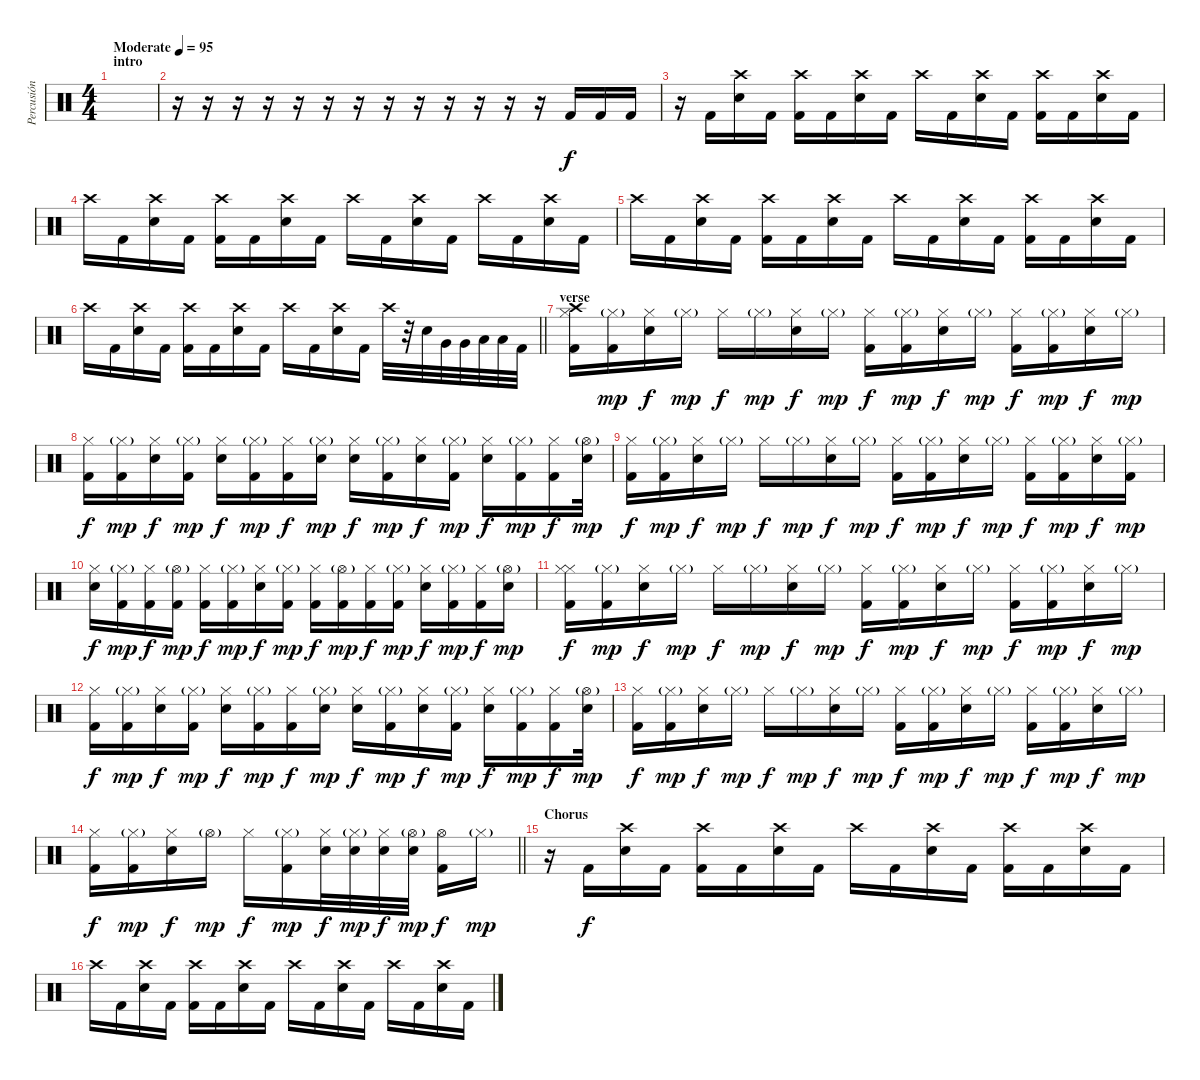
\track ("Percusión" "Percusión") {instrument percussion}
\staff {score}
\articulation defaults
\ts (4 4)
\section ("" "intro")
\tempo (95 "Moderate")
\clef neutral
\ks c
|
r.16 r.16 r.16 r.16 r.16 r.16 r.16 r.16 r.16 r.16 r.16 r.16 r.16 "Kick (hit) 2".16 "Kick (hit) 2".16 "Kick (hit) 2".16 |
r.16 "Kick (hit) 2".16 ("Crash high (hit)" "Electric Snare (hit)").16 "Kick (hit) 2".16 ("Crash high (hit)" "Kick (hit) 2").16 "Kick (hit) 2".16 ("Crash high (hit)" "Electric Snare (hit)").16 "Kick (hit) 2".16 "Crash high (hit)".16 "Kick (hit) 2".16 ("Crash high (hit)" "Electric Snare (hit)").16 "Kick (hit) 2".16 ("Crash high (hit)" "Kick (hit) 2").16 "Kick (hit) 2".16 ("Crash high (hit)" "Electric Snare (hit)").16 "Kick (hit) 2".16 |
"Crash high (hit)".16 "Kick (hit) 2".16 ("Crash high (hit)" "Electric Snare (hit)").16 "Kick (hit) 2".16 ("Crash high (hit)" "Kick (hit) 2").16 "Kick (hit) 2".16 ("Crash high (hit)" "Electric Snare (hit)").16 "Kick (hit) 2".16 "Crash high (hit)".16 "Kick (hit) 2".16 ("Crash high (hit)" "Electric Snare (hit)").16 "Kick (hit) 2".16 "Crash high (hit)".16 "Kick (hit) 2".16 ("Crash high (hit)" "Electric Snare (hit)").16 "Kick (hit) 2".16 |
"Crash high (hit)".16 "Kick (hit) 2".16 ("Crash high (hit)" "Electric Snare (hit)").16 "Kick (hit) 2".16 ("Crash high (hit)" "Kick (hit) 2").16 "Kick (hit) 2".16 ("Crash high (hit)" "Electric Snare (hit)").16 "Kick (hit) 2".16 "Crash high (hit)".16 "Kick (hit) 2".16 ("Crash high (hit)" "Electric Snare (hit)").16 "Kick (hit) 2".16 ("Crash high (hit)" "Kick (hit) 2").16 "Kick (hit) 2".16 ("Crash high (hit)" "Electric Snare (hit)").16 "Kick (hit) 2".16 |
\barLineRight lightlight "Crash high (hit)".16 "Kick (hit) 2".16
("Crash high (hit)" "Electric Snare (hit)").16 "Kick (hit) 2".16 ("Crash high (hit)" "Kick (hit) 2").16 "Kick (hit) 2".16 ("Crash high (hit)" "Electric Snare (hit)").16 "Kick (hit) 2".16 "Crash high (hit)".16 "Kick (hit) 2".16 ("Crash high (hit)" "Electric Snare (hit)").16 "Kick (hit) 2".16 "Crash high (hit)".32 r.32 "Electric Snare (hit)".32 "Very Low Tom (hit)".32 "Very Low Tom (hit)".32 "Low Floor Tom (hit)".32 "Low Floor Tom (hit)".32 "Kick (hit) 2".32 |
\section ("" "verse")
("Crash high (hit)" "Hi-Hat (closed)" "Kick (hit) 2").16 ("Hi-Hat (closed)"{g} "Kick (hit) 2").16{dy mp} ("Hi-Hat (closed)" "Electric Snare (hit)").16{dy f} "Hi-Hat (closed)"{g}.16{dy mp} "Hi-Hat (closed)".16{dy f} "Hi-Hat (closed)"{g}.16{dy mp} ("Hi-Hat (closed)" "Electric Snare (hit)").16{dy f} "Hi-Hat (closed)"{g}.16{dy mp} ("Hi-Hat (closed)" "Kick (hit) 2").16{dy f} ("Hi-Hat (closed)"{g} "Kick (hit) 2").16{dy mp} ("Hi-Hat (closed)" "Electric Snare (hit)").16{dy f} "Hi-Hat (closed)"{g}.16{dy mp} ("Hi-Hat (closed)" "Kick (hit) 2").16{dy f} ("Hi-Hat (closed)"{g} "Kick (hit) 2").16{dy mp} ("Hi-Hat (closed)" "Electric Snare (hit)").16{dy f} "Hi-Hat (closed)"{g}.16{dy mp} |
("Hi-Hat (closed)" "Kick (hit) 2").16{dy f} ("Hi-Hat (closed)"{g} "Kick (hit) 2").16{dy mp} ("Hi-Hat (closed)" "Electric Snare (hit)").16{dy f} ("Hi-Hat (closed)"{g} "Kick (hit) 2").16{dy mp} ("Hi-Hat (closed)" "Electric Snare (hit)").16{dy f} ("Hi-Hat (closed)"{g} "Kick (hit) 2").16{dy mp} ("Hi-Hat (closed)" "Kick (hit) 2").16{dy f} ("Hi-Hat (closed)"{g} "Electric Snare (hit)").16{dy mp} ("Hi-Hat (closed)" "Electric Snare (hit)").16{dy f} ("Hi-Hat (closed)"{g} "Kick (hit) 2").16{dy mp} ("Hi-Hat (closed)" "Electric Snare (hit)").16{dy f} ("Hi-Hat (closed)"{g} "Kick (hit) 2").16{dy mp} ("Hi-Hat (closed)" "Electric Snare (hit)").16{dy f} ("Hi-Hat (closed)"{g} "Kick (hit) 2").16{dy mp} ("Hi-Hat (closed)" "Kick (hit) 2").16{dy f} ("Hi-Hat (open)"{g} "Electric Snare (hit)").32{dy mp} |
("Hi-Hat (closed)" "Kick (hit) 2").16{dy f} ("Hi-Hat (closed)"{g} "Kick (hit) 2").16{dy mp} ("Hi-Hat (closed)" "Electric Snare (hit)").16{dy f} "Hi-Hat (closed)"{g}.16{dy mp} "Hi-Hat (closed)".16{dy f} "Hi-Hat (closed)"{g}.16{dy mp} ("Hi-Hat (closed)" "Electric Snare (hit)").16{dy f} "Hi-Hat (closed)"{g}.16{dy mp} ("Hi-Hat (closed)" "Kick (hit) 2").16{dy f} ("Hi-Hat (closed)"{g} "Kick (hit) 2").16{dy mp} ("Hi-Hat (closed)" "Electric Snare (hit)").16{dy f} "Hi-Hat (closed)"{g}.16{dy mp} ("Hi-Hat (closed)" "Kick (hit) 2").16{dy f} ("Hi-Hat (closed)"{g} "Kick (hit) 2").16{dy mp} ("Hi-Hat (closed)" "Electric Snare (hit)").16{dy f} ("Hi-Hat (closed)"{g} "Kick (hit) 2").16{dy mp} |
("Hi-Hat (closed)" "Electric Snare (hit)").16{dy f} ("Hi-Hat (closed)"{g} "Kick (hit) 2").16{dy mp} ("Hi-Hat (closed)" "Kick (hit) 2").16{dy f} ("Hi-Hat (open)"{g} "Kick (hit) 2").16{dy mp} ("Hi-Hat (closed)" "Kick (hit) 2").16{dy f} ("Hi-Hat (closed)"{g} "Kick (hit) 2").16{dy mp} ("Hi-Hat (closed)" "Electric Snare (hit)").16{dy f} ("Hi-Hat (closed)"{g} "Kick (hit) 2").16{dy mp} ("Hi-Hat (closed)" "Kick (hit) 2").16{dy f} ("Hi-Hat (open)"{g} "Kick (hit) 2").16{dy mp} ("Hi-Hat (closed)" "Kick (hit) 2").16{dy f} ("Hi-Hat (closed)"{g} "Kick (hit) 2").16{dy mp} ("Hi-Hat (closed)" "Electric Snare (hit)").16{dy f} ("Hi-Hat (closed)"{g} "Kick (hit) 2").16{dy mp} ("Hi-Hat (closed)" "Kick (hit) 2").16{dy f} ("Hi-Hat (open)"{g} "Electric Snare (hit)").16{dy mp} |
("Hi-Hat (closed)" "Hi-Hat (closed)" "Kick (hit) 2").16{dy f} ("Hi-Hat (closed)"{g} "Kick (hit) 2").16{dy mp} ("Hi-Hat (closed)" "Electric Snare (hit)").16{dy f} "Hi-Hat (closed)"{g}.16{dy mp} "Hi-Hat (closed)".16{dy f} "Hi-Hat (closed)"{g}.16{dy mp} ("Hi-Hat (closed)" "Electric Snare (hit)").16{dy f} "Hi-Hat (closed)"{g}.16{dy mp} ("Hi-Hat (closed)" "Kick (hit) 2").16{dy f} ("Hi-Hat (closed)"{g} "Kick (hit) 2").16{dy mp} ("Hi-Hat (closed)" "Electric Snare (hit)").16{dy f} "Hi-Hat (closed)"{g}.16{dy mp} ("Hi-Hat (closed)" "Kick (hit) 2").16{dy f} ("Hi-Hat (closed)"{g} "Kick (hit) 2").16{dy mp} ("Hi-Hat (closed)" "Electric Snare (hit)").16{dy f} "Hi-Hat (closed)"{g}.16{dy mp} |
("Hi-Hat (closed)" "Kick (hit) 2").16{dy f} ("Hi-Hat (closed)"{g} "Kick (hit) 2").16{dy mp} ("Hi-Hat (closed)" "Electric Snare (hit)").16{dy f} ("Hi-Hat (closed)"{g} "Kick (hit) 2").16{dy mp} ("Hi-Hat (closed)" "Electric Snare (hit)").16{dy f} ("Hi-Hat (closed)"{g} "Kick (hit) 2").16{dy mp} ("Hi-Hat (closed)" "Kick (hit) 2").16{dy f} ("Hi-Hat (closed)"{g} "Electric Snare (hit)").16{dy mp} ("Hi-Hat (closed)" "Electric Snare (hit)").16{dy f} ("Hi-Hat (closed)"{g} "Kick (hit) 2").16{dy mp} ("Hi-Hat (closed)" "Electric Snare (hit)").16{dy f} ("Hi-Hat (closed)"{g} "Kick (hit) 2").16{dy mp} ("Hi-Hat (closed)" "Electric Snare (hit)").16{dy f} ("Hi-Hat (closed)"{g} "Kick (hit) 2").16{dy mp} ("Hi-Hat (closed)" "Kick (hit) 2").16{dy f} ("Hi-Hat (open)"{g} "Electric Snare (hit)").32{dy mp} |
("Hi-Hat (closed)" "Kick (hit) 2").16{dy f} ("Hi-Hat (closed)"{g} "Kick (hit) 2").16{dy mp} ("Hi-Hat (closed)" "Electric Snare (hit)").16{dy f} "Hi-Hat (closed)"{g}.16{dy mp} "Hi-Hat (closed)".16{dy f} "Hi-Hat (closed)"{g}.16{dy mp} ("Hi-Hat (closed)" "Electric Snare (hit)").16{dy f} "Hi-Hat (closed)"{g}.16{dy mp} ("Hi-Hat (closed)" "Kick (hit) 2").16{dy f} ("Hi-Hat (closed)"{g} "Kick (hit) 2").16{dy mp} ("Hi-Hat (closed)" "Electric Snare (hit)").16{dy f} "Hi-Hat (closed)"{g}.16{dy mp} ("Hi-Hat (closed)" "Kick (hit) 2").16{dy f} ("Hi-Hat (closed)"{g} "Kick (hit) 2").16{dy mp} ("Hi-Hat (closed)" "Electric Snare (hit)").16{dy f} "Hi-Hat (closed)"{g}.16{dy mp} |
\barLineRight lightlight
("Hi-Hat (closed)" "Kick (hit) 2").16{dy f} ("Hi-Hat (closed)"{g} "Kick (hit) 2").16{dy mp} ("Hi-Hat (closed)" "Electric Snare (hit)").16{dy f} "Hi-Hat (open)"{g}.16{dy mp} "Hi-Hat (closed)".16{dy f} ("Hi-Hat (closed)"{g} "Kick (hit) 2").16{dy mp} ("Hi-Hat (closed)" "Electric Snare (hit)").32{dy f} ("Hi-Hat (closed)"{g} "Electric Snare (hit)").32{dy mp} ("Hi-Hat (closed)" "Electric Snare (hit)").32{dy f} ("Hi-Hat (open)"{g} "Electric Snare (hit)").32{dy mp} ("Hi-Hat (open)" "Kick (hit) 2").16{dy f} "Hi-Hat (closed)"{g}.16{dy mp} |
\section ("" "Chorus")
r.16 "Kick (hit) 2".16{dy f} ("Crash high (hit)" "Electric Snare (hit)").16 "Kick (hit) 2".16 ("Crash high (hit)" "Kick (hit) 2").16 "Kick (hit) 2".16 ("Crash high (hit)" "Electric Snare (hit)").16 "Kick (hit) 2".16 "Crash high (hit)".16 "Kick (hit) 2".16 ("Crash high (hit)" "Electric Snare (hit)").16 "Kick (hit) 2".16 ("Crash high (hit)" "Kick (hit) 2").16 "Kick (hit) 2".16 ("Crash high (hit)" "Electric Snare (hit)").16 "Kick (hit) 2".16 |
"Crash high (hit)".16 "Kick (hit) 2".16 ("Crash high (hit)" "Electric Snare (hit)").16 "Kick (hit) 2".16 ("Crash high (hit)" "Kick (hit) 2").16 "Kick (hit) 2".16 ("Crash high (hit)" "Electric Snare (hit)").16 "Kick (hit) 2".16 "Crash high (hit)".16 "Kick (hit) 2".16 ("Crash high (hit)" "Electric Snare (hit)").16 "Kick (hit) 2".16 "Crash high (hit)".16 "Kick (hit) 2".16 ("Crash high (hit)" "Electric Snare (hit)").16 "Kick (hit) 2".16
